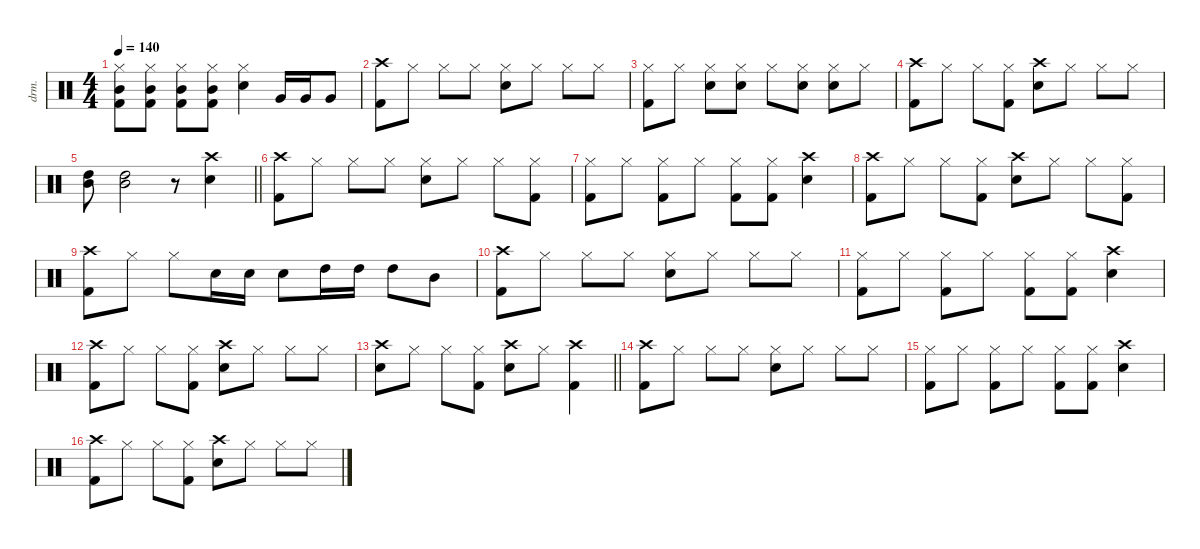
\defaultSystemsLayout 4
\hideDynamics
\bracketExtendMode nobrackets
\otherSystemsTrackNameOrientation horizontal
\track ("Drums" "drm.") {defaultSystemsLayout 4 instrument percussion}
\staff {score}
\articulation defaults
\ts (4 4)
\tempo 140
\clef neutral
\ks aminor
("Hi-Hat (closed)" "Mid Tom (hit)" "Kick (hit) 2").8{dy f beam Down} ("Hi-Hat (closed)" "Mid Tom (hit)" "Kick (hit) 2").8{beam Down} ("Hi-Hat (closed)" "Mid Tom (hit)" "Kick (hit) 2").8{beam Down} ("Hi-Hat (closed)" "Mid Tom (hit)" "Kick (hit) 2").8{beam Down} ("Hi-Hat (closed)" "Snare (hit) 2").4{beam Down} "Very Low Tom (hit)".16{beam Up} "Very Low Tom (hit)".16{beam Up} "Very Low Tom (hit)".8{beam Up} |
("Crash high (hit)" "Kick (hit) 2").8{beam Down} "Hi-Hat (closed)".8{beam Down} "Hi-Hat (closed)".8{beam Down} "Hi-Hat (closed)".8{beam Down} ("Hi-Hat (closed)" "Snare (hit) 2").8{beam Down} "Hi-Hat (closed)".8{beam Down} "Hi-Hat (closed)".8{beam Down} "Hi-Hat (closed)".8{beam Down} |
("Hi-Hat (closed)" "Kick (hit) 2").8{beam Down} "Hi-Hat (closed)".8{beam Down} ("Hi-Hat (closed)" "Snare (hit) 2").8{beam Down} ("Hi-Hat (closed)" "Snare (hit) 2").8{beam Down} "Hi-Hat (closed)".8{beam Down} ("Hi-Hat (closed)" "Snare (hit) 2").8{beam Down} ("Hi-Hat (closed)" "Snare (hit) 2").8{beam Down} "Hi-Hat (closed)".8{beam Down} |
("Crash high (hit)" "Kick (hit) 2").8{beam Down} "Hi-Hat (closed)".8{beam Down} "Hi-Hat (closed)".8{beam Down} ("Hi-Hat (closed)" "Kick (hit) 2").8{beam Down} ("Crash high (hit)" "Snare (hit) 2").8{beam Down} "Hi-Hat (closed)".8{beam Down} "Hi-Hat (closed)".8{beam Down} "Hi-Hat (closed)".8{beam Down} |
\barLineRight lightlight
("High Tom (hit)" "Mid Tom (hit)").8{beam Down} ("High Tom (hit)" "Mid Tom (hit)").2{beam Down} r.8{beam Down} ("Crash high (hit)" "Snare (hit) 2").4{beam Down} |
("Crash high (hit)" "Kick (hit) 2").8{beam Down} "Hi-Hat (closed)".8{beam Down} "Hi-Hat (closed)".8{beam Down} "Hi-Hat (closed)".8{beam Down} ("Hi-Hat (closed)" "Snare (hit) 2").8{beam Down} "Hi-Hat (closed)".8{beam Down} "Hi-Hat (closed)".8{beam Down} ("Hi-Hat (closed)" "Kick (hit) 2").8{beam Down} |
("Hi-Hat (closed)" "Kick (hit) 2").8{beam Down} "Hi-Hat (closed)".8{beam Down} ("Hi-Hat (closed)" "Kick (hit) 2").8{beam Down} "Hi-Hat (closed)".8{beam Down} ("Hi-Hat (closed)" "Kick (hit) 2").8{beam Down} ("Hi-Hat (closed)" "Kick (hit) 2").8{beam Down} ("Crash high (hit)" "Snare (hit) 2").4{beam Down} |
("Crash high (hit)" "Kick (hit) 2").8{beam Down} "Hi-Hat (closed)".8{beam Down} "Hi-Hat (closed)".8{beam Down} ("Hi-Hat (closed)" "Kick (hit) 2").8{beam Down} ("Crash high (hit)" "Snare (hit) 2").8{beam Down} "Hi-Hat (closed)".8{beam Down} "Hi-Hat (closed)".8{beam Down} ("Hi-Hat (closed)" "Kick (hit) 2").8{beam Down} |
("Crash high (hit)" "Kick (hit) 2").8{beam Down} "Hi-Hat (closed)".8{beam Down} "Hi-Hat (closed)".8{beam Down} "Snare (hit) 2".16{beam Down} "Snare (hit) 2".16{beam Down} "Snare (hit) 2".8{beam Down} "High Tom (hit)".16{beam Down} "High Tom (hit)".16{beam Down} "High Tom (hit)".8{beam Down} "Mid Tom (hit)".8{beam Down} |
("Crash high (hit)" "Kick (hit) 2").8{beam Down} "Hi-Hat (closed)".8{beam Down} "Hi-Hat (closed)".8{beam Down} "Hi-Hat (closed)".8{beam Down} ("Hi-Hat (closed)" "Snare (hit) 2").8{beam Down} "Hi-Hat (closed)".8{beam Down} "Hi-Hat (closed)".8{beam Down} "Hi-Hat (closed)".8{beam Down} |
("Hi-Hat (closed)" "Kick (hit) 2").8{beam Down} "Hi-Hat (closed)".8{beam Down} ("Hi-Hat (closed)" "Kick (hit) 2").8{beam Down} "Hi-Hat (closed)".8{beam Down} ("Hi-Hat (closed)" "Kick (hit) 2").8{beam Down} ("Hi-Hat (closed)" "Kick (hit) 2").8{beam Down} ("Crash high (hit)" "Snare (hit) 2").4{beam Down} |
("Crash high (hit)" "Kick (hit) 2").8{beam Down} "Hi-Hat (closed)".8{beam Down} "Hi-Hat (closed)".8{beam Down} ("Hi-Hat (closed)" "Kick (hit) 2").8{beam Down} ("Crash high (hit)" "Snare (hit) 2").8{beam Down} "Hi-Hat (closed)".8{beam Down} "Hi-Hat (closed)".8{beam Down} "Hi-Hat (closed)".8{beam Down} |
\barLineRight lightlight
("Crash high (hit)" "Snare (hit) 2").8{beam Down} "Hi-Hat (closed)".8{beam Down} "Hi-Hat (closed)".8{beam Down} ("Hi-Hat (closed)" "Kick (hit) 2").8{beam Down} ("Crash high (hit)" "Snare (hit) 2").8{beam Down} "Hi-Hat (closed)".8{beam Down} ("Crash high (hit)" "Kick (hit) 2").4{beam Down} |
("Crash high (hit)" "Kick (hit) 2").8{beam Down} "Hi-Hat (closed)".8{beam Down} "Hi-Hat (closed)".8{beam Down} "Hi-Hat (closed)".8{beam Down} ("Hi-Hat (closed)" "Snare (hit) 2").8{beam Down} "Hi-Hat (closed)".8{beam Down} "Hi-Hat (closed)".8{beam Down} "Hi-Hat (closed)".8{beam Down} |
("Hi-Hat (closed)" "Kick (hit) 2").8{beam Down} "Hi-Hat (closed)".8{beam Down} ("Hi-Hat (closed)" "Kick (hit) 2").8{beam Down} "Hi-Hat (closed)".8{beam Down} ("Hi-Hat (closed)" "Kick (hit) 2").8{beam Down} ("Hi-Hat (closed)" "Kick (hit) 2").8{beam Down} ("Crash high (hit)" "Snare (hit) 2").4{beam Down} |
("Crash high (hit)" "Kick (hit) 2").8{beam Down} "Hi-Hat (closed)".8{beam Down} "Hi-Hat (closed)".8{beam Down} ("Hi-Hat (closed)" "Kick (hit) 2").8{beam Down} ("Crash high (hit)" "Snare (hit) 2").8{beam Down} "Hi-Hat (closed)".8{beam Down} "Hi-Hat (closed)".8{beam Down} "Hi-Hat (closed)".8{beam Down}
